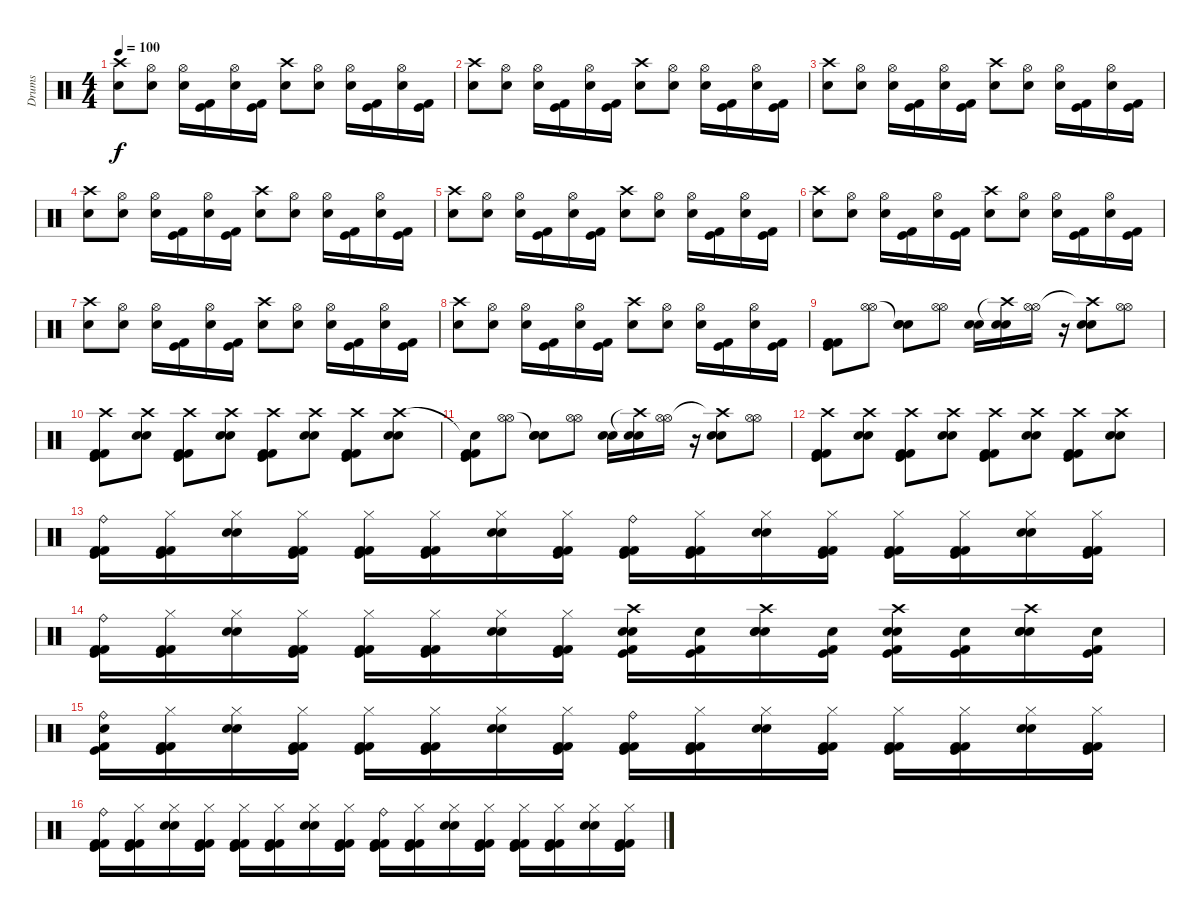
\track ("Drums" "Drums") {instrument percussion}
\staff {score}
\articulation defaults
\ts (4 4)
\tempo 100
\clef neutral
\ks c
("Crash high (hit)" "Electric Snare (hit)").8{dy f} ("Hi-Hat (open)" "Electric Snare (hit)").8 ("Hi-Hat (open)" "Electric Snare (hit)").16 ("Kick (hit)" "Kick (hit) 2").16 ("Hi-Hat (open)" "Electric Snare (hit)").16 ("Kick (hit)" "Kick (hit) 2").16 ("Crash high (hit)" "Electric Snare (hit)").8 ("Hi-Hat (open)" "Electric Snare (hit)").8 ("Hi-Hat (open)" "Electric Snare (hit)").16 ("Kick (hit)" "Kick (hit) 2").16 ("Hi-Hat (open)" "Electric Snare (hit)").16 ("Kick (hit)" "Kick (hit) 2").16 |
("Crash high (hit)" "Electric Snare (hit)").8 ("Hi-Hat (open)" "Electric Snare (hit)").8 ("Hi-Hat (open)" "Electric Snare (hit)").16 ("Kick (hit)" "Kick (hit) 2").16 ("Hi-Hat (open)" "Electric Snare (hit)").16 ("Kick (hit)" "Kick (hit) 2").16 ("Crash high (hit)" "Electric Snare (hit)").8 ("Hi-Hat (open)" "Electric Snare (hit)").8 ("Hi-Hat (open)" "Electric Snare (hit)").16 ("Kick (hit)" "Kick (hit) 2").16 ("Hi-Hat (open)" "Electric Snare (hit)").16 ("Kick (hit)" "Kick (hit) 2").16 |
("Crash high (hit)" "Electric Snare (hit)").8 ("Hi-Hat (open)" "Electric Snare (hit)").8 ("Hi-Hat (open)" "Electric Snare (hit)").16 ("Kick (hit)" "Kick (hit) 2").16 ("Hi-Hat (open)" "Electric Snare (hit)").16 ("Kick (hit)" "Kick (hit) 2").16 ("Crash high (hit)" "Electric Snare (hit)").8 ("Hi-Hat (open)" "Electric Snare (hit)").8 ("Hi-Hat (open)" "Electric Snare (hit)").16 ("Kick (hit)" "Kick (hit) 2").16 ("Hi-Hat (open)" "Electric Snare (hit)").16 ("Kick (hit)" "Kick (hit) 2").16 |
("Crash high (hit)" "Electric Snare (hit)").8 ("Hi-Hat (open)" "Electric Snare (hit)").8 ("Hi-Hat (open)" "Electric Snare (hit)").16 ("Kick (hit)" "Kick (hit) 2").16 ("Hi-Hat (open)" "Electric Snare (hit)").16 ("Kick (hit)" "Kick (hit) 2").16 ("Crash high (hit)" "Electric Snare (hit)").8 ("Hi-Hat (open)" "Electric Snare (hit)").8 ("Hi-Hat (open)" "Electric Snare (hit)").16 ("Kick (hit)" "Kick (hit) 2").16 ("Hi-Hat (open)" "Electric Snare (hit)").16 ("Kick (hit)" "Kick (hit) 2").16 |
("Crash high (hit)" "Electric Snare (hit)").8 ("Hi-Hat (open)" "Electric Snare (hit)").8 ("Hi-Hat (open)" "Electric Snare (hit)").16 ("Kick (hit)" "Kick (hit) 2").16 ("Hi-Hat (open)" "Electric Snare (hit)").16 ("Kick (hit)" "Kick (hit) 2").16 ("Crash high (hit)" "Electric Snare (hit)").8 ("Hi-Hat (open)" "Electric Snare (hit)").8 ("Hi-Hat (open)" "Electric Snare (hit)").16 ("Kick (hit)" "Kick (hit) 2").16 ("Hi-Hat (open)" "Electric Snare (hit)").16 ("Kick (hit)" "Kick (hit) 2").16 |
("Crash high (hit)" "Electric Snare (hit)").8 ("Hi-Hat (open)" "Electric Snare (hit)").8 ("Hi-Hat (open)" "Electric Snare (hit)").16 ("Kick (hit)" "Kick (hit) 2").16 ("Hi-Hat (open)" "Electric Snare (hit)").16 ("Kick (hit)" "Kick (hit) 2").16 ("Crash high (hit)" "Electric Snare (hit)").8 ("Hi-Hat (open)" "Electric Snare (hit)").8 ("Hi-Hat (open)" "Electric Snare (hit)").16 ("Kick (hit)" "Kick (hit) 2").16 ("Hi-Hat (open)" "Electric Snare (hit)").16 ("Kick (hit)" "Kick (hit) 2").16 |
("Crash high (hit)" "Electric Snare (hit)").8 ("Hi-Hat (open)" "Electric Snare (hit)").8 ("Hi-Hat (open)" "Electric Snare (hit)").16 ("Kick (hit)" "Kick (hit) 2").16 ("Hi-Hat (open)" "Electric Snare (hit)").16 ("Kick (hit)" "Kick (hit) 2").16 ("Crash high (hit)" "Electric Snare (hit)").8 ("Hi-Hat (open)" "Electric Snare (hit)").8 ("Hi-Hat (open)" "Electric Snare (hit)").16 ("Kick (hit)" "Kick (hit) 2").16 ("Hi-Hat (open)" "Electric Snare (hit)").16 ("Kick (hit)" "Kick (hit) 2").16 |
("Crash high (hit)" "Electric Snare (hit)").8 ("Hi-Hat (open)" "Electric Snare (hit)").8 ("Hi-Hat (open)" "Electric Snare (hit)").16 ("Kick (hit)" "Kick (hit) 2").16 ("Hi-Hat (open)" "Electric Snare (hit)").16 ("Kick (hit)" "Kick (hit) 2").16 ("Crash high (hit)" "Electric Snare (hit)").8 ("Hi-Hat (open)" "Electric Snare (hit)").8 ("Hi-Hat (open)" "Electric Snare (hit)").16 ("Kick (hit)" "Kick (hit) 2").16 ("Hi-Hat (open)" "Electric Snare (hit)").16 ("Kick (hit)" "Kick (hit) 2").16 |
("Kick (hit) 2" "Kick (hit)" "Kick (hit) 2").8 ("Hi-Hat (open)" "Hi-Hat (open)").8 ("Snare (hit)"{t} "Snare (hit) 2" "Electric Snare (hit)").8 ("Hi-Hat (open)" "Hi-Hat (open)").8 ("Snare (hit) 2" "Electric Snare (hit)").16 ("Crash high (hit)"{t} "Snare (hit) 2" "Electric Snare (hit)").16 ("Hi-Hat (open)" "Hi-Hat (open)").16 r.16 ("Crash high (hit)"{t} "Snare (hit) 2" "Electric Snare (hit)").8 ("Hi-Hat (open)" "Hi-Hat (open)").8 |
("Crash high (hit)" "Kick (hit) 2" "Kick (hit)" "Kick (hit) 2").8 ("Crash high (hit)" "Snare (hit) 2" "Electric Snare (hit)").8 ("Crash high (hit)" "Kick (hit) 2" "Kick (hit)" "Kick (hit) 2").8 ("Crash high (hit)" "Snare (hit) 2" "Electric Snare (hit)").8 ("Crash high (hit)" "Kick (hit) 2" "Kick (hit)" "Kick (hit) 2").8 ("Crash high (hit)" "Snare (hit) 2" "Electric Snare (hit)").8 ("Crash high (hit)" "Kick (hit) 2" "Kick (hit)" "Kick (hit) 2").8 ("Crash high (hit)" "Snare (hit) 2" "Electric Snare (hit)").8 |
("Snare (hit)"{t} "Kick (hit) 2" "Kick (hit)" "Kick (hit) 2").8 ("Hi-Hat (open)" "Hi-Hat (open)").8 ("Snare (hit)"{t} "Snare (hit) 2" "Electric Snare (hit)").8 ("Hi-Hat (open)" "Hi-Hat (open)").8 ("Snare (hit) 2" "Electric Snare (hit)").16 ("Crash high (hit)"{t} "Snare (hit) 2" "Electric Snare (hit)").16 ("Hi-Hat (open)" "Hi-Hat (open)").16 r.16 ("Crash high (hit)"{t} "Snare (hit) 2" "Electric Snare (hit)").8 ("Hi-Hat (open)" "Hi-Hat (open)").8 |
("Crash high (hit)" "Kick (hit) 2" "Kick (hit)" "Kick (hit) 2").8 ("Crash high (hit)" "Snare (hit) 2" "Electric Snare (hit)").8 ("Crash high (hit)" "Kick (hit) 2" "Kick (hit)" "Kick (hit) 2").8 ("Crash high (hit)" "Snare (hit) 2" "Electric Snare (hit)").8 ("Crash high (hit)" "Kick (hit) 2" "Kick (hit)" "Kick (hit) 2").8 ("Crash high (hit)" "Snare (hit) 2" "Electric Snare (hit)").8 ("Crash high (hit)" "Kick (hit) 2" "Kick (hit)" "Kick (hit) 2").8 ("Crash high (hit)" "Snare (hit) 2" "Electric Snare (hit)").8 |
("Ride (bell)" "Kick (hit) 2" "Kick (hit)" "Kick (hit) 2").16 ("Hi-Hat (closed)" "Kick (hit) 2" "Kick (hit)" "Kick (hit) 2").16 ("Hi-Hat (closed)" "Electric Snare (hit)" "Snare (hit) 2").16 ("Hi-Hat (closed)" "Kick (hit) 2" "Kick (hit)" "Kick (hit) 2").16 ("Hi-Hat (closed)" "Kick (hit) 2" "Kick (hit)" "Kick (hit) 2").16 ("Hi-Hat (closed)" "Kick (hit) 2" "Kick (hit)" "Kick (hit) 2").16 ("Hi-Hat (closed)" "Electric Snare (hit)" "Snare (hit) 2").16 ("Hi-Hat (closed)" "Kick (hit) 2" "Kick (hit)" "Kick (hit) 2").16 ("Ride (bell)" "Kick (hit) 2" "Kick (hit)" "Kick (hit) 2").16 ("Hi-Hat (closed)" "Kick (hit) 2" "Kick (hit)" "Kick (hit) 2").16 ("Hi-Hat (closed)" "Electric Snare (hit)" "Snare (hit) 2").16 ("Hi-Hat (closed)" "Kick (hit) 2" "Kick (hit)" "Kick (hit) 2").16 ("Hi-Hat (closed)" "Kick (hit) 2" "Kick (hit)" "Kick (hit) 2").16 ("Hi-Hat (closed)" "Kick (hit) 2" "Kick (hit)" "Kick (hit) 2").16 ("Hi-Hat (closed)" "Electric Snare (hit)" "Snare (hit) 2").16 ("Hi-Hat (closed)" "Kick (hit) 2" "Kick (hit)" "Kick (hit) 2").16 |
("Ride (bell)" "Kick (hit) 2" "Kick (hit)" "Kick (hit) 2").16 ("Hi-Hat (closed)" "Kick (hit) 2" "Kick (hit)" "Kick (hit) 2").16 ("Hi-Hat (closed)" "Electric Snare (hit)" "Snare (hit) 2").16 ("Hi-Hat (closed)" "Kick (hit) 2" "Kick (hit)" "Kick (hit) 2").16 ("Hi-Hat (closed)" "Kick (hit) 2" "Kick (hit)" "Kick (hit) 2").16 ("Hi-Hat (closed)" "Kick (hit) 2" "Kick (hit)" "Kick (hit) 2").16 ("Hi-Hat (closed)" "Electric Snare (hit)" "Snare (hit) 2").16 ("Hi-Hat (closed)" "Kick (hit) 2" "Kick (hit)" "Kick (hit) 2").16 ("Crash high (hit)" "Snare (hit) 2" "Electric Snare (hit)" "Kick (hit)" "Kick (hit) 2").16 ("Electric Snare (hit)" "Kick (hit)" "Kick (hit) 2").16 ("Crash high (hit)" "Snare (hit) 2" "Electric Snare (hit)" "Snare (hit) 2").16 ("Electric Snare (hit)" "Kick (hit)" "Kick (hit) 2").16 ("Crash high (hit)" "Snare (hit) 2" "Electric Snare (hit)" "Kick (hit)" "Kick (hit) 2").16 ("Electric Snare (hit)" "Kick (hit)" "Kick (hit) 2").16 ("Crash high (hit)" "Snare (hit) 2" "Electric Snare (hit)" "Snare (hit) 2").16 ("Electric Snare (hit)" "Kick (hit)" "Kick (hit) 2").16 |
("Ride (bell)" "Electric Snare (hit)" "Kick (hit)" "Kick (hit) 2").16 ("Hi-Hat (closed)" "Kick (hit) 2" "Kick (hit)" "Kick (hit) 2").16 ("Hi-Hat (closed)" "Electric Snare (hit)" "Snare (hit) 2").16 ("Hi-Hat (closed)" "Kick (hit) 2" "Kick (hit)" "Kick (hit) 2").16 ("Hi-Hat (closed)" "Kick (hit) 2" "Kick (hit)" "Kick (hit) 2").16 ("Hi-Hat (closed)" "Kick (hit) 2" "Kick (hit)" "Kick (hit) 2").16 ("Hi-Hat (closed)" "Electric Snare (hit)" "Snare (hit) 2").16 ("Hi-Hat (closed)" "Kick (hit) 2" "Kick (hit)" "Kick (hit) 2").16 ("Ride (bell)" "Kick (hit) 2" "Kick (hit)" "Kick (hit) 2").16 ("Hi-Hat (closed)" "Kick (hit) 2" "Kick (hit)" "Kick (hit) 2").16 ("Hi-Hat (closed)" "Electric Snare (hit)" "Snare (hit) 2").16 ("Hi-Hat (closed)" "Kick (hit) 2" "Kick (hit)" "Kick (hit) 2").16 ("Hi-Hat (closed)" "Kick (hit) 2" "Kick (hit)" "Kick (hit) 2").16 ("Hi-Hat (closed)" "Kick (hit) 2" "Kick (hit)" "Kick (hit) 2").16 ("Hi-Hat (closed)" "Electric Snare (hit)" "Snare (hit) 2").16 ("Hi-Hat (closed)" "Kick (hit) 2" "Kick (hit)" "Kick (hit) 2").16 |
("Ride (bell)" "Kick (hit) 2" "Kick (hit)" "Kick (hit) 2").16 ("Hi-Hat (closed)" "Kick (hit) 2" "Kick (hit)" "Kick (hit) 2").16 ("Hi-Hat (closed)" "Electric Snare (hit)" "Snare (hit) 2").16 ("Hi-Hat (closed)" "Kick (hit) 2" "Kick (hit)" "Kick (hit) 2").16 ("Hi-Hat (closed)" "Kick (hit) 2" "Kick (hit)" "Kick (hit) 2").16 ("Hi-Hat (closed)" "Kick (hit) 2" "Kick (hit)" "Kick (hit) 2").16 ("Hi-Hat (closed)" "Electric Snare (hit)" "Snare (hit) 2").16 ("Hi-Hat (closed)" "Kick (hit) 2" "Kick (hit)" "Kick (hit) 2").16 ("Ride (bell)" "Kick (hit) 2" "Kick (hit)" "Kick (hit) 2").16 ("Hi-Hat (closed)" "Kick (hit) 2" "Kick (hit)" "Kick (hit) 2").16 ("Hi-Hat (closed)" "Electric Snare (hit)" "Snare (hit) 2").16 ("Hi-Hat (closed)" "Kick (hit) 2" "Kick (hit)" "Kick (hit) 2").16 ("Hi-Hat (closed)" "Kick (hit) 2" "Kick (hit)" "Kick (hit) 2").16 ("Hi-Hat (closed)" "Kick (hit) 2" "Kick (hit)" "Kick (hit) 2").16 ("Hi-Hat (closed)" "Electric Snare (hit)" "Snare (hit) 2").16 ("Hi-Hat (closed)" "Kick (hit) 2" "Kick (hit)" "Kick (hit) 2").16
